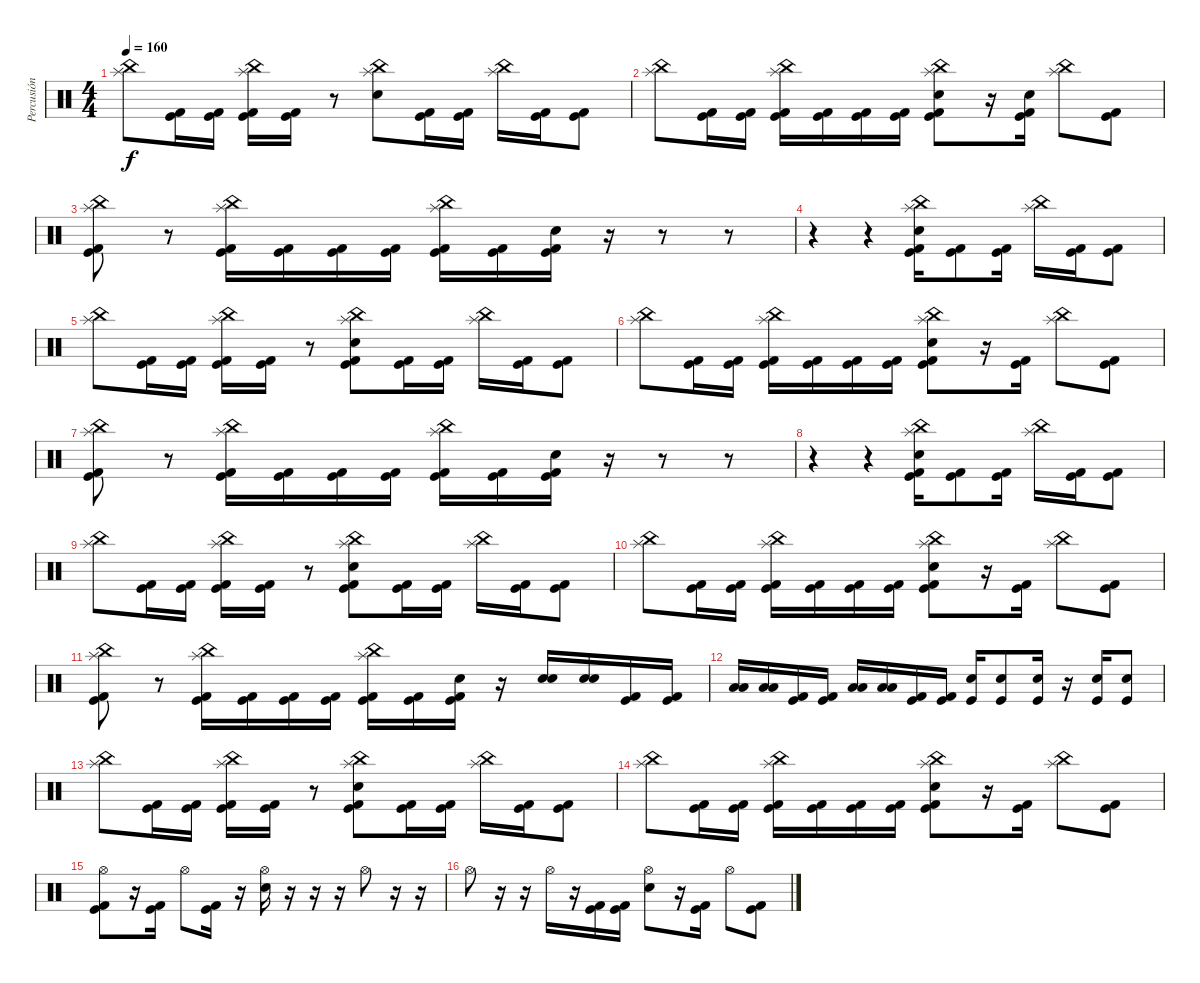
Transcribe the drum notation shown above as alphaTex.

\track ("Percusión" "Percusión") {instrument percussion}
\staff {score}
\articulation defaults
\ts (4 4)
\tempo 160
\clef neutral
\ks c
("Splash (hit)" "China (hit)").8{dy f} ("Kick (hit) 2" "Kick (hit)").16 ("Kick (hit) 2" "Kick (hit)").16 ("Splash (hit)" "China (hit)" "Kick (hit) 2" "Kick (hit)").16 ("Kick (hit) 2" "Kick (hit)").16 r.8 ("Splash (hit)" "China (hit)" "Electric Snare (hit)").8 ("Kick (hit) 2" "Kick (hit)").16 ("Kick (hit) 2" "Kick (hit)").16 ("Splash (hit)" "China (hit)").16 ("Kick (hit) 2" "Kick (hit)").16 ("Kick (hit) 2" "Kick (hit)").8 |
("Splash (hit)" "China (hit)").8 ("Kick (hit) 2" "Kick (hit)").16 ("Kick (hit) 2" "Kick (hit)").16 ("Splash (hit)" "China (hit)" "Kick (hit) 2" "Kick (hit)").16 ("Kick (hit) 2" "Kick (hit)").16 ("Kick (hit)" "Kick (hit) 2").16 ("Kick (hit)" "Kick (hit) 2").16 ("Splash (hit)" "China (hit)" "Electric Snare (hit)" "Kick (hit) 2" "Kick (hit)").8 r.16 ("Electric Snare (hit)" "Kick (hit) 2" "Kick (hit)").16 ("Splash (hit)" "China (hit)").8 ("Kick (hit) 2" "Kick (hit)").8 |
("Splash (hit)" "China (hit)" "Kick (hit) 2" "Kick (hit)").8 r.8 ("Splash (hit)" "China (hit)" "Kick (hit) 2" "Kick (hit)").16 ("Kick (hit) 2" "Kick (hit)").16 ("Kick (hit) 2" "Kick (hit)").16 ("Kick (hit) 2" "Kick (hit)").16 ("Splash (hit)" "China (hit)" "Kick (hit) 2" "Kick (hit)").16 ("Kick (hit) 2" "Kick (hit)").16 ("Electric Snare (hit)" "Kick (hit) 2" "Kick (hit)").16 r.16 r.8 r.8 |
r.4 r.4 ("Splash (hit)" "China (hit)" "Electric Snare (hit)" "Kick (hit) 2" "Kick (hit)").16 ("Kick (hit) 2" "Kick (hit)").8 ("Kick (hit) 2" "Kick (hit)").16 ("Splash (hit)" "China (hit)").16 ("Kick (hit) 2" "Kick (hit)").16 ("Kick (hit) 2" "Kick (hit)").8 |
("Splash (hit)" "China (hit)").8 ("Kick (hit) 2" "Kick (hit)").16 ("Kick (hit) 2" "Kick (hit)").16 ("Splash (hit)" "China (hit)" "Kick (hit) 2" "Kick (hit)").16 ("Kick (hit) 2" "Kick (hit)").16 r.8 ("Splash (hit)" "China (hit)" "Electric Snare (hit)" "Kick (hit) 2" "Kick (hit)").8 ("Kick (hit) 2" "Kick (hit)").16 ("Kick (hit) 2" "Kick (hit)").16 ("Splash (hit)" "China (hit)").16 ("Kick (hit) 2" "Kick (hit)").16 ("Kick (hit) 2" "Kick (hit)").8 |
("Splash (hit)" "China (hit)").8 ("Kick (hit) 2" "Kick (hit)").16 ("Kick (hit) 2" "Kick (hit)").16 ("Splash (hit)" "China (hit)" "Kick (hit) 2" "Kick (hit)").16 ("Kick (hit) 2" "Kick (hit)").16 ("Kick (hit)" "Kick (hit) 2").16 ("Kick (hit)" "Kick (hit) 2").16 ("Splash (hit)" "China (hit)" "Electric Snare (hit)" "Kick (hit) 2" "Kick (hit)").8 r.16 ("Kick (hit) 2" "Kick (hit)").16 ("Splash (hit)" "China (hit)").8 ("Kick (hit) 2" "Kick (hit)").8 |
("Splash (hit)" "China (hit)" "Kick (hit) 2" "Kick (hit)").8 r.8 ("Splash (hit)" "China (hit)" "Kick (hit) 2" "Kick (hit)").16 ("Kick (hit) 2" "Kick (hit)").16 ("Kick (hit) 2" "Kick (hit)").16 ("Kick (hit) 2" "Kick (hit)").16 ("Splash (hit)" "China (hit)" "Kick (hit) 2" "Kick (hit)").16 ("Kick (hit) 2" "Kick (hit)").16 ("Electric Snare (hit)" "Kick (hit) 2" "Kick (hit)").16 r.16 r.8 r.8 |
r.4 r.4 ("Splash (hit)" "China (hit)" "Electric Snare (hit)" "Kick (hit) 2" "Kick (hit)").16 ("Kick (hit) 2" "Kick (hit)").8 ("Kick (hit) 2" "Kick (hit)").16 ("Splash (hit)" "China (hit)").16 ("Kick (hit) 2" "Kick (hit)").16 ("Kick (hit) 2" "Kick (hit)").8 |
("Splash (hit)" "China (hit)").8 ("Kick (hit) 2" "Kick (hit)").16 ("Kick (hit) 2" "Kick (hit)").16 ("Splash (hit)" "China (hit)" "Kick (hit) 2" "Kick (hit)").16 ("Kick (hit) 2" "Kick (hit)").16 r.8 ("Splash (hit)" "China (hit)" "Electric Snare (hit)" "Kick (hit) 2" "Kick (hit)").8 ("Kick (hit) 2" "Kick (hit)").16 ("Kick (hit) 2" "Kick (hit)").16 ("Splash (hit)" "China (hit)").16 ("Kick (hit) 2" "Kick (hit)").16 ("Kick (hit) 2" "Kick (hit)").8 |
("Splash (hit)" "China (hit)").8 ("Kick (hit) 2" "Kick (hit)").16 ("Kick (hit) 2" "Kick (hit)").16 ("Splash (hit)" "China (hit)" "Kick (hit) 2" "Kick (hit)").16 ("Kick (hit) 2" "Kick (hit)").16 ("Kick (hit)" "Kick (hit) 2").16 ("Kick (hit)" "Kick (hit) 2").16 ("Splash (hit)" "China (hit)" "Electric Snare (hit)" "Kick (hit) 2" "Kick (hit)").8 r.16 ("Kick (hit) 2" "Kick (hit)").16 ("Splash (hit)" "China (hit)").8 ("Kick (hit) 2" "Kick (hit)").8 |
("Splash (hit)" "China (hit)" "Kick (hit) 2" "Kick (hit)").8 r.8 ("Splash (hit)" "China (hit)" "Kick (hit) 2" "Kick (hit)").16 ("Kick (hit) 2" "Kick (hit)").16 ("Kick (hit) 2" "Kick (hit)").16 ("Kick (hit) 2" "Kick (hit)").16 ("Splash (hit)" "China (hit)" "Kick (hit) 2" "Kick (hit)").16 ("Kick (hit) 2" "Kick (hit)").16 ("Electric Snare (hit)" "Kick (hit) 2" "Kick (hit)").16 r.16 ("Electric Snare (hit)" "Electric Snare (hit)").16 ("Electric Snare (hit)" "Electric Snare (hit)").16 ("Kick (hit)" "Kick (hit) 2").16 ("Kick (hit) 2" "Kick (hit)").16 |
("Low Tom (hit)" "Low Tom (hit)").16 ("Low Tom (hit)" "Low Tom (hit)").16 ("Kick (hit) 2" "Kick (hit)").16 ("Kick (hit) 2" "Kick (hit)").16 ("Low Floor Tom (hit)" "Low Floor Tom (hit)").16 ("Low Floor Tom (hit)" "Low Floor Tom (hit)").16 ("Kick (hit)" "Kick (hit) 2").16 ("Kick (hit) 2" "Kick (hit)").16 ("Electric Snare (hit)" "Kick (hit)").16 ("Electric Snare (hit)" "Kick (hit)").8 ("Electric Snare (hit)" "Kick (hit)").16 r.16 ("Electric Snare (hit)" "Kick (hit)").16 ("Electric Snare (hit)" "Kick (hit)").8 |
("Splash (hit)" "China (hit)").8 ("Kick (hit) 2" "Kick (hit)").16 ("Kick (hit) 2" "Kick (hit)").16 ("Splash (hit)" "China (hit)" "Kick (hit) 2" "Kick (hit)").16 ("Kick (hit) 2" "Kick (hit)").16 r.8 ("Splash (hit)" "China (hit)" "Electric Snare (hit)" "Kick (hit) 2" "Kick (hit)").8 ("Kick (hit) 2" "Kick (hit)").16 ("Kick (hit) 2" "Kick (hit)").16 ("Splash (hit)" "China (hit)").16 ("Kick (hit) 2" "Kick (hit)").16 ("Kick (hit) 2" "Kick (hit)").8 |
("Splash (hit)" "China (hit)").8 ("Kick (hit) 2" "Kick (hit)").16 ("Kick (hit) 2" "Kick (hit)").16 ("Splash (hit)" "China (hit)" "Kick (hit) 2" "Kick (hit)").16 ("Kick (hit) 2" "Kick (hit)").16 ("Kick (hit)" "Kick (hit) 2").16 ("Kick (hit)" "Kick (hit) 2").16 ("Splash (hit)" "China (hit)" "Electric Snare (hit)" "Kick (hit) 2" "Kick (hit)").8 r.16 ("Kick (hit) 2" "Kick (hit)").16 ("Splash (hit)" "China (hit)").8 ("Kick (hit) 2" "Kick (hit)").8 |
("Hi-Hat (open)" "Kick (hit)" "Kick (hit) 2").8 r.16 ("Kick (hit)" "Kick (hit) 2").16 "Hi-Hat (open)".8 ("Kick (hit)" "Kick (hit) 2").16 r.16 ("Hi-Hat (open)" "Electric Snare (hit)").16 r.16 r.16 r.16 "Hi-Hat (open)".8 r.16 r.16 |
"Hi-Hat (open)".8 r.16 r.16 "Hi-Hat (open)".16 r.16 ("Kick (hit) 2" "Kick (hit)").16 ("Kick (hit) 2" "Kick (hit)").16 ("Hi-Hat (open)" "Electric Snare (hit)").8 r.16 ("Kick (hit)" "Kick (hit) 2").16 "Hi-Hat (open)".8 ("Kick (hit) 2" "Kick (hit)").8
